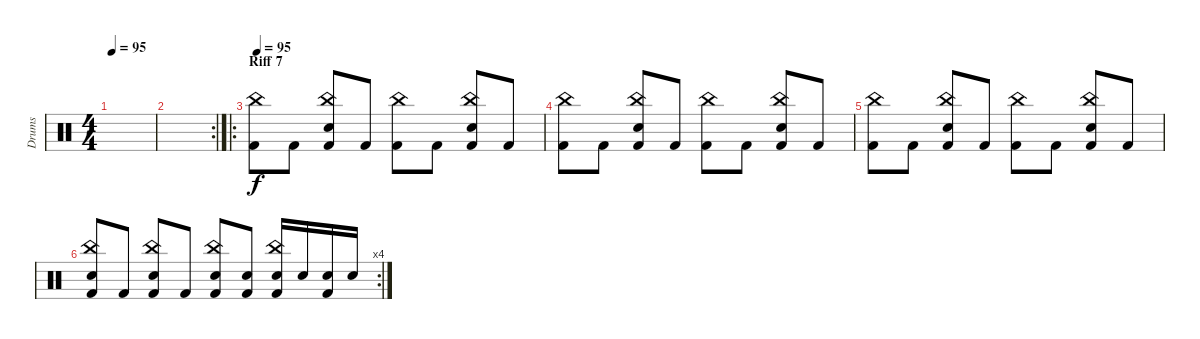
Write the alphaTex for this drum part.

\track ("Drums" "Drums") {instrument percussion}
\staff {score}
\articulation defaults
\ts (4 4)
\tempo 95
\clef neutral
\ks c
|
\rc 2
|
\ro
\section ("" "Riff 7")
\tempo 95
("Kick (hit) 2" "China (hit)").8 "Kick (hit) 2".8 ("Kick (hit) 2" "Snare (hit) 2" "China (hit)").8 "Kick (hit) 2".8 ("Kick (hit) 2" "China (hit)").8 "Kick (hit) 2".8 ("Kick (hit) 2" "Snare (hit) 2" "China (hit)").8 "Kick (hit) 2".8 |
("Kick (hit) 2" "China (hit)").8 "Kick (hit) 2".8 ("Kick (hit) 2" "Snare (hit) 2" "China (hit)").8 "Kick (hit) 2".8 ("Kick (hit) 2" "China (hit)").8 "Kick (hit) 2".8 ("Kick (hit) 2" "Snare (hit) 2" "China (hit)").8 "Kick (hit) 2".8 |
("Kick (hit) 2" "China (hit)").8 "Kick (hit) 2".8 ("Kick (hit) 2" "Snare (hit) 2" "China (hit)").8 "Kick (hit) 2".8 ("Kick (hit) 2" "China (hit)").8 "Kick (hit) 2".8 ("Kick (hit) 2" "Snare (hit) 2" "China (hit)").8 "Kick (hit) 2".8 |
\rc 4
("Kick (hit) 2" "Snare (hit) 2" "China (hit)").8 "Kick (hit) 2".8 ("Kick (hit) 2" "Snare (hit) 2" "China (hit)").8 "Kick (hit) 2".8 ("Kick (hit) 2" "Snare (hit) 2" "China (hit)").8 ("Kick (hit) 2" "Snare (hit) 2").8 ("Kick (hit) 2" "Snare (hit) 2" "China (hit)").16 "Snare (hit) 2".16 ("Kick (hit) 2" "Snare (hit) 2").16 "Snare (hit) 2".16
